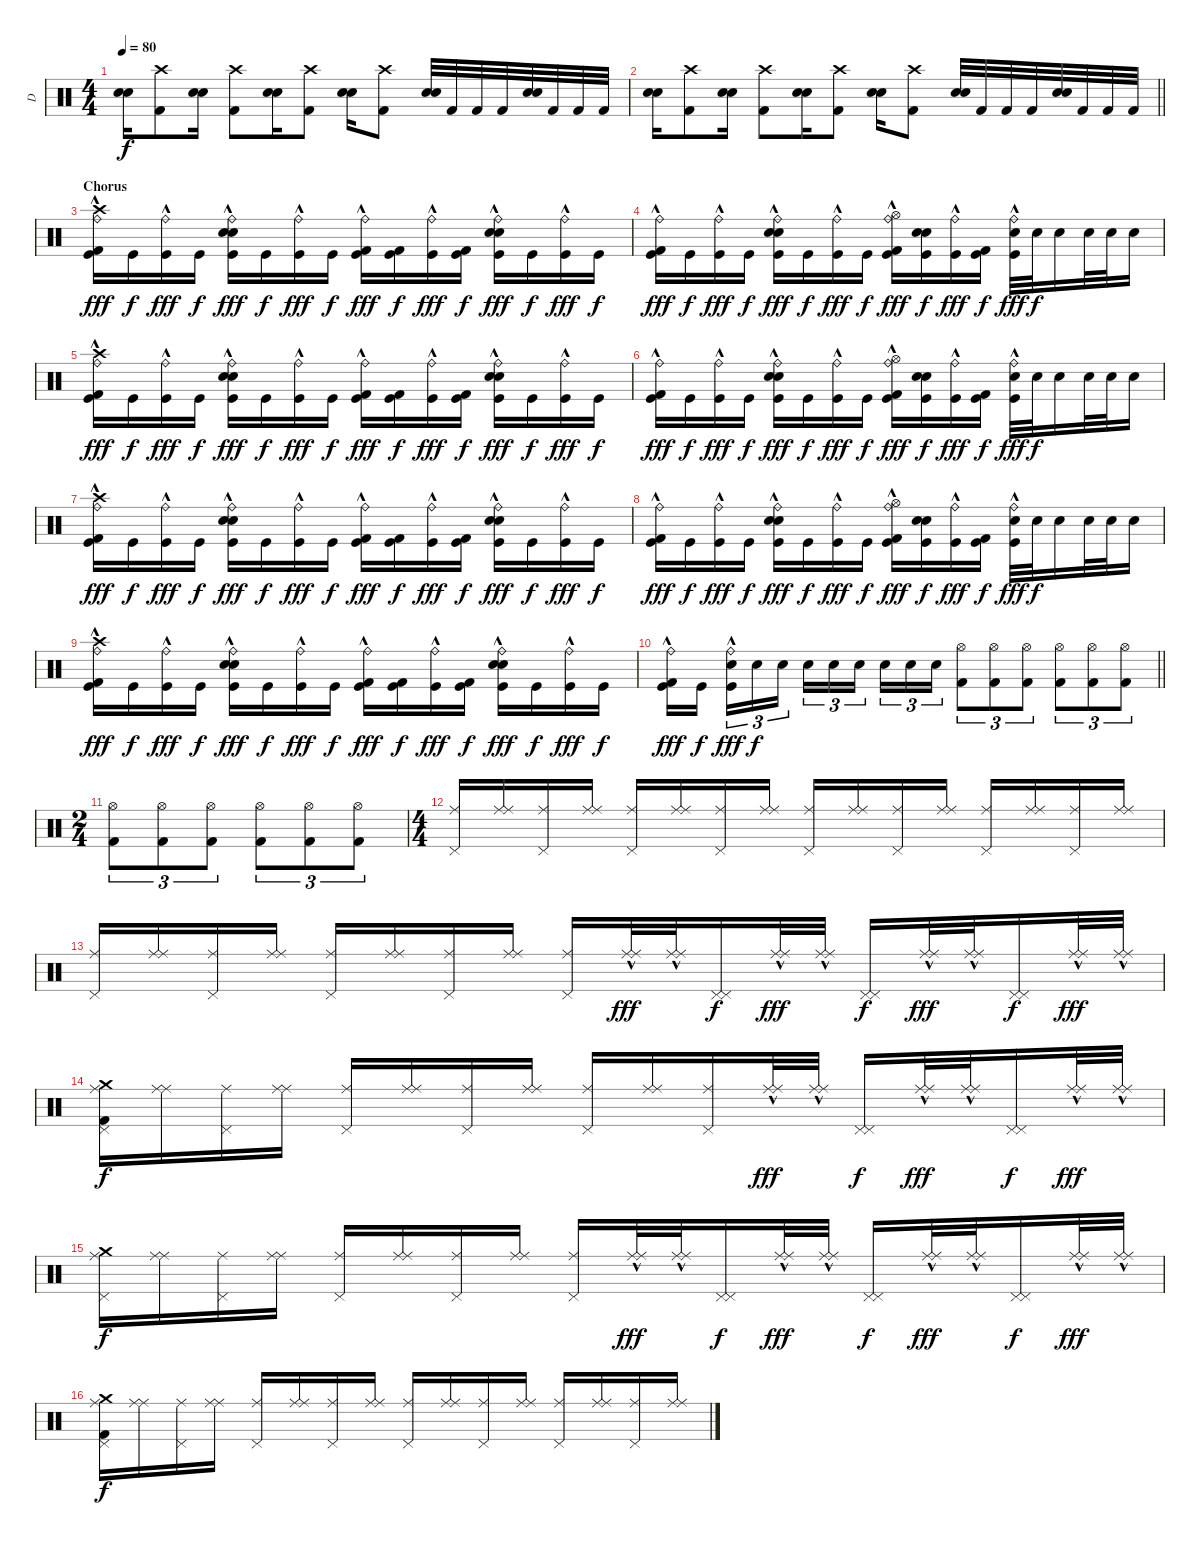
\track ("D" "D") {instrument percussion}
\staff {score}
\articulation defaults
\ts (4 4)
\tempo 80
\clef neutral
\ks c
("Electric Snare (hit)" "Electric Snare (hit)").16{dy f} ("Crash high (hit)" "Kick (hit) 2").8 ("Electric Snare (hit)" "Electric Snare (hit)").16 ("Crash high (hit)" "Kick (hit) 2").8 ("Electric Snare (hit)" "Electric Snare (hit)").16 ("Crash high (hit)" "Kick (hit) 2").8 ("Electric Snare (hit)" "Electric Snare (hit)").16 ("Crash high (hit)" "Kick (hit) 2").8 ("Electric Snare (hit)" "Electric Snare (hit)").32 "Kick (hit) 2".32 "Kick (hit) 2".32 "Kick (hit) 2".32 ("Electric Snare (hit)" "Electric Snare (hit)").32 "Kick (hit) 2".32 "Kick (hit) 2".32 "Kick (hit) 2".32 |
\barLineRight lightlight
("Electric Snare (hit)" "Electric Snare (hit)").16 ("Crash high (hit)" "Kick (hit) 2").8 ("Electric Snare (hit)" "Electric Snare (hit)").16 ("Crash high (hit)" "Kick (hit) 2").8 ("Electric Snare (hit)" "Electric Snare (hit)").16 ("Crash high (hit)" "Kick (hit) 2").8 ("Electric Snare (hit)" "Electric Snare (hit)").16 ("Crash high (hit)" "Kick (hit) 2").8 ("Electric Snare (hit)" "Electric Snare (hit)").32 "Kick (hit) 2".32 "Kick (hit) 2".32 "Kick (hit) 2".32 ("Electric Snare (hit)" "Electric Snare (hit)").32 "Kick (hit) 2".32 "Kick (hit) 2".32 "Kick (hit) 2".32 |
\section ("" "Chorus")
("Crash high (hit)" "Kick (hit) 2" "Kick (hit)" "Ride (bell)"{hac}).16{dy fff} "Kick (hit)".16{dy f} ("Kick (hit)" "Ride (bell)"{hac}).16{dy fff} "Kick (hit)".16{dy f} ("Electric Snare (hit)" "Electric Snare (hit)" "Kick (hit)" "Ride (bell)"{hac}).16{dy fff} "Kick (hit)".16{dy f} ("Kick (hit)" "Ride (bell)"{hac}).16{dy fff} "Kick (hit)".16{dy f} ("Kick (hit) 2" "Kick (hit)" "Ride (bell)"{hac}).16{dy fff} ("Kick (hit) 2" "Kick (hit)").16{dy f} ("Kick (hit)" "Ride (bell)"{hac}).16{dy fff} ("Kick (hit) 2" "Kick (hit)").16{dy f} ("Electric Snare (hit)" "Electric Snare (hit)" "Kick (hit)" "Ride (bell)"{hac}).16{dy fff} "Kick (hit)".16{dy f} ("Kick (hit)" "Ride (bell)"{hac}).16{dy fff} "Kick (hit)".16{dy f} |
("Kick (hit) 2" "Kick (hit)" "Ride (bell)"{hac}).16{dy fff} "Kick (hit)".16{dy f} ("Kick (hit)" "Ride (bell)"{hac}).16{dy fff} "Kick (hit)".16{dy f} ("Electric Snare (hit)" "Electric Snare (hit)" "Kick (hit)" "Ride (bell)"{hac}).16{dy fff} "Kick (hit)".16{dy f} ("Kick (hit)" "Ride (bell)"{hac}).16{dy fff} "Kick (hit)".16{dy f} ("Hi-Hat (open)" "Kick (hit) 2" "Kick (hit)" "Ride (bell)"{hac}).16{dy fff} ("Electric Snare (hit)" "Electric Snare (hit)" "Kick (hit)").16{dy f} ("Kick (hit)" "Ride (bell)"{hac}).16{dy fff} ("Kick (hit) 2" "Kick (hit)").16{dy f} ("Electric Snare (hit)" "Kick (hit)" "Ride (bell)"{hac}).32{dy fff} "Electric Snare (hit)".32{dy f} "Electric Snare (hit)".16 "Electric Snare (hit)".32 "Electric Snare (hit)".32 "Electric Snare (hit)".16 |
("Crash high (hit)" "Kick (hit) 2" "Kick (hit)" "Ride (bell)"{hac}).16{dy fff} "Kick (hit)".16{dy f} ("Kick (hit)" "Ride (bell)"{hac}).16{dy fff} "Kick (hit)".16{dy f} ("Electric Snare (hit)" "Electric Snare (hit)" "Kick (hit)" "Ride (bell)"{hac}).16{dy fff} "Kick (hit)".16{dy f} ("Kick (hit)" "Ride (bell)"{hac}).16{dy fff} "Kick (hit)".16{dy f} ("Kick (hit) 2" "Kick (hit)" "Ride (bell)"{hac}).16{dy fff} ("Kick (hit) 2" "Kick (hit)").16{dy f} ("Kick (hit)" "Ride (bell)"{hac}).16{dy fff} ("Kick (hit) 2" "Kick (hit)").16{dy f} ("Electric Snare (hit)" "Electric Snare (hit)" "Kick (hit)" "Ride (bell)"{hac}).16{dy fff} "Kick (hit)".16{dy f} ("Kick (hit)" "Ride (bell)"{hac}).16{dy fff} "Kick (hit)".16{dy f} |
("Kick (hit) 2" "Kick (hit)" "Ride (bell)"{hac}).16{dy fff} "Kick (hit)".16{dy f} ("Kick (hit)" "Ride (bell)"{hac}).16{dy fff} "Kick (hit)".16{dy f} ("Electric Snare (hit)" "Electric Snare (hit)" "Kick (hit)" "Ride (bell)"{hac}).16{dy fff} "Kick (hit)".16{dy f} ("Kick (hit)" "Ride (bell)"{hac}).16{dy fff} "Kick (hit)".16{dy f} ("Hi-Hat (open)" "Kick (hit) 2" "Kick (hit)" "Ride (bell)"{hac}).16{dy fff} ("Electric Snare (hit)" "Electric Snare (hit)" "Kick (hit)").16{dy f} ("Kick (hit)" "Ride (bell)"{hac}).16{dy fff} ("Kick (hit) 2" "Kick (hit)").16{dy f} ("Electric Snare (hit)" "Kick (hit)" "Ride (bell)"{hac}).32{dy fff} "Electric Snare (hit)".32{dy f} "Electric Snare (hit)".16 "Electric Snare (hit)".32 "Electric Snare (hit)".32 "Electric Snare (hit)".16 |
("Crash high (hit)" "Kick (hit) 2" "Kick (hit)" "Ride (bell)"{hac}).16{dy fff} "Kick (hit)".16{dy f} ("Kick (hit)" "Ride (bell)"{hac}).16{dy fff} "Kick (hit)".16{dy f} ("Electric Snare (hit)" "Electric Snare (hit)" "Kick (hit)" "Ride (bell)"{hac}).16{dy fff} "Kick (hit)".16{dy f} ("Kick (hit)" "Ride (bell)"{hac}).16{dy fff} "Kick (hit)".16{dy f} ("Kick (hit) 2" "Kick (hit)" "Ride (bell)"{hac}).16{dy fff} ("Kick (hit) 2" "Kick (hit)").16{dy f} ("Kick (hit)" "Ride (bell)"{hac}).16{dy fff} ("Kick (hit) 2" "Kick (hit)").16{dy f} ("Electric Snare (hit)" "Electric Snare (hit)" "Kick (hit)" "Ride (bell)"{hac}).16{dy fff} "Kick (hit)".16{dy f} ("Kick (hit)" "Ride (bell)"{hac}).16{dy fff} "Kick (hit)".16{dy f} |
("Kick (hit) 2" "Kick (hit)" "Ride (bell)"{hac}).16{dy fff} "Kick (hit)".16{dy f} ("Kick (hit)" "Ride (bell)"{hac}).16{dy fff} "Kick (hit)".16{dy f} ("Electric Snare (hit)" "Electric Snare (hit)" "Kick (hit)" "Ride (bell)"{hac}).16{dy fff} "Kick (hit)".16{dy f} ("Kick (hit)" "Ride (bell)"{hac}).16{dy fff} "Kick (hit)".16{dy f} ("Hi-Hat (open)" "Kick (hit) 2" "Kick (hit)" "Ride (bell)"{hac}).16{dy fff} ("Electric Snare (hit)" "Electric Snare (hit)" "Kick (hit)").16{dy f} ("Kick (hit)" "Ride (bell)"{hac}).16{dy fff} ("Kick (hit) 2" "Kick (hit)").16{dy f} ("Electric Snare (hit)" "Kick (hit)" "Ride (bell)"{hac}).32{dy fff} "Electric Snare (hit)".32{dy f} "Electric Snare (hit)".16 "Electric Snare (hit)".32 "Electric Snare (hit)".32 "Electric Snare (hit)".16 |
("Crash high (hit)" "Kick (hit) 2" "Kick (hit)" "Ride (bell)"{hac}).16{dy fff} "Kick (hit)".16{dy f} ("Kick (hit)" "Ride (bell)"{hac}).16{dy fff} "Kick (hit)".16{dy f} ("Electric Snare (hit)" "Electric Snare (hit)" "Kick (hit)" "Ride (bell)"{hac}).16{dy fff} "Kick (hit)".16{dy f} ("Kick (hit)" "Ride (bell)"{hac}).16{dy fff} "Kick (hit)".16{dy f} ("Kick (hit) 2" "Kick (hit)" "Ride (bell)"{hac}).16{dy fff} ("Kick (hit) 2" "Kick (hit)").16{dy f} ("Kick (hit)" "Ride (bell)"{hac}).16{dy fff} ("Kick (hit) 2" "Kick (hit)").16{dy f} ("Electric Snare (hit)" "Electric Snare (hit)" "Kick (hit)" "Ride (bell)"{hac}).16{dy fff} "Kick (hit)".16{dy f} ("Kick (hit)" "Ride (bell)"{hac}).16{dy fff} "Kick (hit)".16{dy f} |
\barLineRight lightlight
("Kick (hit) 2" "Kick (hit)" "Ride (bell)"{hac}).16{dy fff} "Kick (hit)".16{dy f beam splitsecondary} ("Electric Snare (hit)" "Kick (hit)" "Ride (bell)"{hac}).16{tu (3 2) dy fff} "Electric Snare (hit)".16{tu (3 2) dy f} "Electric Snare (hit)".16{tu (3 2)} "Electric Snare (hit)".16{tu (3 2)} "Electric Snare (hit)".16{tu (3 2)} "Electric Snare (hit)".16{tu (3 2) beam splitsecondary} "Electric Snare (hit)".16{tu (3 2)} "Electric Snare (hit)".16{tu (3 2)} "Electric Snare (hit)".16{tu (3 2)} ("Kick (hit) 2" "Hi-Hat (open)").8{tu (3 2)} ("Kick (hit) 2" "Hi-Hat (open)").8{tu (3 2)} ("Kick (hit) 2" "Hi-Hat (open)").8{tu (3 2)} ("Kick (hit) 2" "Hi-Hat (open)").8{tu (3 2)} ("Kick (hit) 2" "Hi-Hat (open)").8{tu (3 2)} ("Kick (hit) 2" "Hi-Hat (open)").8{tu (3 2)} |
\ts (2 4)
("Kick (hit) 2" "Hi-Hat (open)").8{tu (3 2)} ("Kick (hit) 2" "Hi-Hat (open)").8{tu (3 2)} ("Kick (hit) 2" "Hi-Hat (open)").8{tu (3 2)} ("Kick (hit) 2" "Hi-Hat (open)").8{tu (3 2)} ("Kick (hit) 2" "Hi-Hat (open)").8{tu (3 2)} ("Kick (hit) 2" "Hi-Hat (open)").8{tu (3 2)} |
\ts (4 4)
("Pedal Hi-Hat (hit)" "Ride (middle)").16 ("Ride (middle)" "Ride (middle)").16 ("Pedal Hi-Hat (hit)" "Ride (middle)").16 ("Ride (middle)" "Ride (middle)").16 ("Pedal Hi-Hat (hit)" "Ride (middle)").16 ("Ride (middle)" "Ride (middle)").16 ("Pedal Hi-Hat (hit)" "Ride (middle)").16 ("Ride (middle)" "Ride (middle)").16 ("Pedal Hi-Hat (hit)" "Ride (middle)").16 ("Ride (middle)" "Ride (middle)").16 ("Pedal Hi-Hat (hit)" "Ride (middle)").16 ("Ride (middle)" "Ride (middle)").16 ("Pedal Hi-Hat (hit)" "Ride (middle)").16 ("Ride (middle)" "Ride (middle)").16 ("Pedal Hi-Hat (hit)" "Ride (middle)").16 ("Ride (middle)" "Ride (middle)").16 |
("Pedal Hi-Hat (hit)" "Ride (middle)").16 ("Ride (middle)" "Ride (middle)").16 ("Pedal Hi-Hat (hit)" "Ride (middle)").16 ("Ride (middle)" "Ride (middle)").16 ("Pedal Hi-Hat (hit)" "Ride (middle)").16 ("Ride (middle)" "Ride (middle)").16 ("Pedal Hi-Hat (hit)" "Ride (middle)").16 ("Ride (middle)" "Ride (middle)").16 ("Pedal Hi-Hat (hit)" "Ride (middle)").16 ("Ride (middle)"{hac} "Ride (middle)"{hac}).32{dy fff} ("Ride (middle)"{hac} "Ride (middle)"{hac}).32 ("Pedal Hi-Hat (hit)" "Pedal Hi-Hat (hit)").16{dy f} ("Ride (middle)"{hac} "Ride (middle)"{hac}).32{dy fff} ("Ride (middle)"{hac} "Ride (middle)"{hac}).32 ("Pedal Hi-Hat (hit)" "Pedal Hi-Hat (hit)").16{dy f} ("Ride (middle)"{hac} "Ride (middle)"{hac}).32{dy fff} ("Ride (middle)"{hac} "Ride (middle)"{hac}).32 ("Pedal Hi-Hat (hit)" "Pedal Hi-Hat (hit)").16{dy f} ("Ride (middle)"{hac} "Ride (middle)"{hac}).32{dy fff} ("Ride (middle)"{hac} "Ride (middle)"{hac}).32 |
("Crash medium (hit)" "Kick (hit) 2" "Pedal Hi-Hat (hit)" "Ride (middle)").16{dy f} ("Ride (middle)" "Ride (middle)").16 ("Pedal Hi-Hat (hit)" "Ride (middle)").16 ("Ride (middle)" "Ride (middle)").16 ("Pedal Hi-Hat (hit)" "Ride (middle)").16 ("Ride (middle)" "Ride (middle)").16 ("Pedal Hi-Hat (hit)" "Ride (middle)").16 ("Ride (middle)" "Ride (middle)").16 ("Pedal Hi-Hat (hit)" "Ride (middle)").16 ("Ride (middle)" "Ride (middle)").16 ("Pedal Hi-Hat (hit)" "Ride (middle)").16 ("Ride (middle)"{hac} "Ride (middle)"{hac}).32{dy fff} ("Ride (middle)"{hac} "Ride (middle)"{hac}).32 ("Pedal Hi-Hat (hit)" "Pedal Hi-Hat (hit)").16{dy f} ("Ride (middle)"{hac} "Ride (middle)"{hac}).32{dy fff} ("Ride (middle)"{hac} "Ride (middle)"{hac}).32 ("Pedal Hi-Hat (hit)" "Pedal Hi-Hat (hit)").16{dy f} ("Ride (middle)"{hac} "Ride (middle)"{hac}).32{dy fff} ("Ride (middle)"{hac} "Ride (middle)"{hac}).32 |
("Crash medium (hit)" "Pedal Hi-Hat (hit)" "Ride (middle)").16{dy f} ("Ride (middle)" "Ride (middle)").16 ("Pedal Hi-Hat (hit)" "Ride (middle)").16 ("Ride (middle)" "Ride (middle)").16 ("Pedal Hi-Hat (hit)" "Ride (middle)").16 ("Ride (middle)" "Ride (middle)").16 ("Pedal Hi-Hat (hit)" "Ride (middle)").16 ("Ride (middle)" "Ride (middle)").16 ("Pedal Hi-Hat (hit)" "Ride (middle)").16 ("Ride (middle)"{hac} "Ride (middle)"{hac}).32{dy fff} ("Ride (middle)"{hac} "Ride (middle)"{hac}).32 ("Pedal Hi-Hat (hit)" "Pedal Hi-Hat (hit)").16{dy f} ("Ride (middle)"{hac} "Ride (middle)"{hac}).32{dy fff} ("Ride (middle)"{hac} "Ride (middle)"{hac}).32 ("Pedal Hi-Hat (hit)" "Pedal Hi-Hat (hit)").16{dy f} ("Ride (middle)"{hac} "Ride (middle)"{hac}).32{dy fff} ("Ride (middle)"{hac} "Ride (middle)"{hac}).32 ("Pedal Hi-Hat (hit)" "Pedal Hi-Hat (hit)").16{dy f} ("Ride (middle)"{hac} "Ride (middle)"{hac}).32{dy fff} ("Ride (middle)"{hac} "Ride (middle)"{hac}).32 |
("Crash medium (hit)" "Kick (hit) 2" "Pedal Hi-Hat (hit)" "Ride (middle)").16{dy f} ("Ride (middle)" "Ride (middle)").16 ("Pedal Hi-Hat (hit)" "Ride (middle)").16 ("Ride (middle)" "Ride (middle)").16 ("Pedal Hi-Hat (hit)" "Ride (middle)").16 ("Ride (middle)" "Ride (middle)").16 ("Pedal Hi-Hat (hit)" "Ride (middle)").16 ("Ride (middle)" "Ride (middle)").16 ("Pedal Hi-Hat (hit)" "Ride (middle)").16 ("Ride (middle)" "Ride (middle)").16 ("Pedal Hi-Hat (hit)" "Ride (middle)").16 ("Ride (middle)" "Ride (middle)").16 ("Pedal Hi-Hat (hit)" "Ride (middle)").16 ("Ride (middle)" "Ride (middle)").16 ("Pedal Hi-Hat (hit)" "Ride (middle)").16 ("Ride (middle)" "Ride (middle)").16
